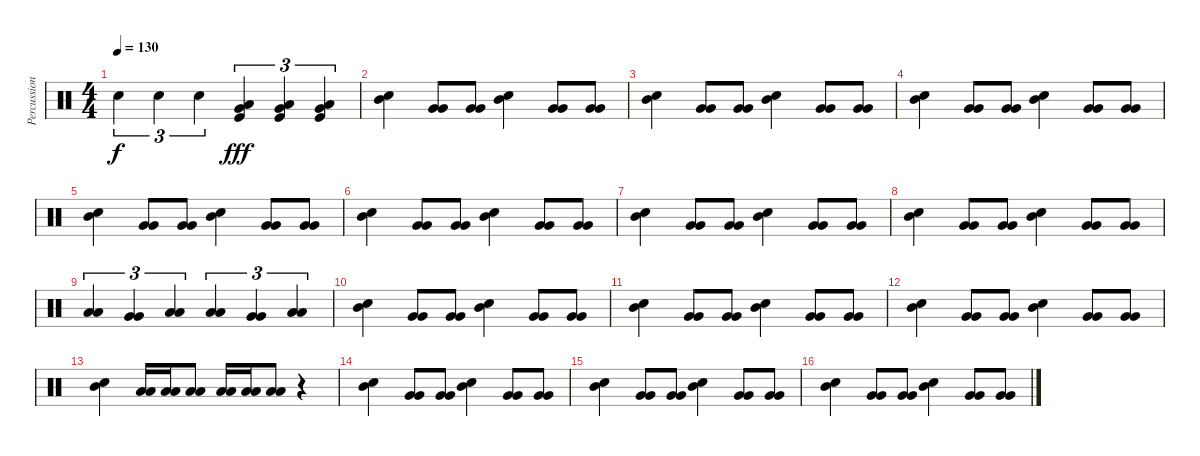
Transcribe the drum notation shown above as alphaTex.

\track ("Percussions" "Percussion") {instrument percussion}
\staff {score}
\articulation defaults
\ts (4 4)
\tempo 130
\clef neutral
\ks c "Electric Snare (hit)".4{tu (3 2) dy f} "Electric Snare (hit)".4{tu (3 2)} "Electric Snare (hit)".4{tu (3 2)}
("Kick (hit)" "Very Low Tom (hit)" "Low Floor Tom (hit)").4{tu (3 2) dy fff} ("Kick (hit)" "Very Low Tom (hit)" "Low Floor Tom (hit)").4{tu (3 2)} ("Kick (hit)" "Very Low Tom (hit)" "Low Floor Tom (hit)").4{tu (3 2)} |
("Electric Snare (hit)" "Mid Tom (hit)").4 ("Very Low Tom (hit)" "Very Low Tom (hit)").8 ("Very Low Tom (hit)" "Very Low Tom (hit)").8 ("Electric Snare (hit)" "Mid Tom (hit)").4 ("Very Low Tom (hit)" "Very Low Tom (hit)").8 ("Very Low Tom (hit)" "Very Low Tom (hit)").8 |
("Electric Snare (hit)" "Mid Tom (hit)").4 ("Very Low Tom (hit)" "Very Low Tom (hit)").8 ("Very Low Tom (hit)" "Very Low Tom (hit)").8 ("Electric Snare (hit)" "Mid Tom (hit)").4 ("Very Low Tom (hit)" "Very Low Tom (hit)").8 ("Very Low Tom (hit)" "Very Low Tom (hit)").8 |
("Electric Snare (hit)" "Mid Tom (hit)").4 ("Very Low Tom (hit)" "Very Low Tom (hit)").8 ("Very Low Tom (hit)" "Very Low Tom (hit)").8 ("Electric Snare (hit)" "Mid Tom (hit)").4 ("Very Low Tom (hit)" "Very Low Tom (hit)").8 ("Very Low Tom (hit)" "Very Low Tom (hit)").8 |
("Electric Snare (hit)" "Mid Tom (hit)").4 ("Very Low Tom (hit)" "Very Low Tom (hit)").8 ("Very Low Tom (hit)" "Very Low Tom (hit)").8 ("Electric Snare (hit)" "Mid Tom (hit)").4 ("Very Low Tom (hit)" "Very Low Tom (hit)").8 ("Very Low Tom (hit)" "Very Low Tom (hit)").8 |
("Electric Snare (hit)" "Mid Tom (hit)").4 ("Very Low Tom (hit)" "Very Low Tom (hit)").8 ("Very Low Tom (hit)" "Very Low Tom (hit)").8 ("Electric Snare (hit)" "Mid Tom (hit)").4 ("Very Low Tom (hit)" "Very Low Tom (hit)").8 ("Very Low Tom (hit)" "Very Low Tom (hit)").8 |
("Electric Snare (hit)" "Mid Tom (hit)").4 ("Very Low Tom (hit)" "Very Low Tom (hit)").8 ("Very Low Tom (hit)" "Very Low Tom (hit)").8 ("Electric Snare (hit)" "Mid Tom (hit)").4 ("Very Low Tom (hit)" "Very Low Tom (hit)").8 ("Very Low Tom (hit)" "Very Low Tom (hit)").8 |
("Electric Snare (hit)" "Mid Tom (hit)").4 ("Very Low Tom (hit)" "Very Low Tom (hit)").8 ("Very Low Tom (hit)" "Very Low Tom (hit)").8 ("Electric Snare (hit)" "Mid Tom (hit)").4 ("Very Low Tom (hit)" "Very Low Tom (hit)").8 ("Very Low Tom (hit)" "Very Low Tom (hit)").8 |
("Low Floor Tom (hit)" "Low Floor Tom (hit)").4{tu (3 2)} ("Very Low Tom (hit)" "Very Low Tom (hit)").4{tu (3 2)} ("Low Tom (hit)" "Low Tom (hit)").4{tu (3 2)} ("Low Floor Tom (hit)" "Low Floor Tom (hit)").4{tu (3 2)} ("Very Low Tom (hit)" "Very Low Tom (hit)").4{tu (3 2)} ("Low Tom (hit)" "Low Tom (hit)").4{tu (3 2)} |
("Electric Snare (hit)" "Mid Tom (hit)").4 ("Very Low Tom (hit)" "Very Low Tom (hit)").8 ("Very Low Tom (hit)" "Very Low Tom (hit)").8 ("Electric Snare (hit)" "Mid Tom (hit)").4 ("Very Low Tom (hit)" "Very Low Tom (hit)").8 ("Very Low Tom (hit)" "Very Low Tom (hit)").8 |
("Electric Snare (hit)" "Mid Tom (hit)").4 ("Very Low Tom (hit)" "Very Low Tom (hit)").8 ("Very Low Tom (hit)" "Very Low Tom (hit)").8 ("Electric Snare (hit)" "Mid Tom (hit)").4 ("Very Low Tom (hit)" "Very Low Tom (hit)").8 ("Very Low Tom (hit)" "Very Low Tom (hit)").8 |
("Electric Snare (hit)" "Mid Tom (hit)").4 ("Very Low Tom (hit)" "Very Low Tom (hit)").8 ("Very Low Tom (hit)" "Very Low Tom (hit)").8 ("Electric Snare (hit)" "Mid Tom (hit)").4 ("Very Low Tom (hit)" "Very Low Tom (hit)").8 ("Very Low Tom (hit)" "Very Low Tom (hit)").8 |
("Electric Snare (hit)" "Mid Tom (hit)").4 ("Low Tom (hit)" "Low Tom (hit)").16 ("Low Tom (hit)" "Low Tom (hit)").16 ("Low Tom (hit)" "Low Tom (hit)").8 ("Low Floor Tom (hit)" "Low Floor Tom (hit)").16 ("Low Floor Tom (hit)" "Low Floor Tom (hit)").16 ("Low Floor Tom (hit)" "Low Floor Tom (hit)").8 r.4 |
("Electric Snare (hit)" "Mid Tom (hit)").4 ("Very Low Tom (hit)" "Very Low Tom (hit)").8 ("Very Low Tom (hit)" "Very Low Tom (hit)").8 ("Electric Snare (hit)" "Mid Tom (hit)").4 ("Very Low Tom (hit)" "Very Low Tom (hit)").8 ("Very Low Tom (hit)" "Very Low Tom (hit)").8 |
("Electric Snare (hit)" "Mid Tom (hit)").4 ("Very Low Tom (hit)" "Very Low Tom (hit)").8 ("Very Low Tom (hit)" "Very Low Tom (hit)").8 ("Electric Snare (hit)" "Mid Tom (hit)").4 ("Very Low Tom (hit)" "Very Low Tom (hit)").8 ("Very Low Tom (hit)" "Very Low Tom (hit)").8 |
("Electric Snare (hit)" "Mid Tom (hit)").4 ("Very Low Tom (hit)" "Very Low Tom (hit)").8 ("Very Low Tom (hit)" "Very Low Tom (hit)").8 ("Electric Snare (hit)" "Mid Tom (hit)").4 ("Very Low Tom (hit)" "Very Low Tom (hit)").8 ("Very Low Tom (hit)" "Very Low Tom (hit)").8
